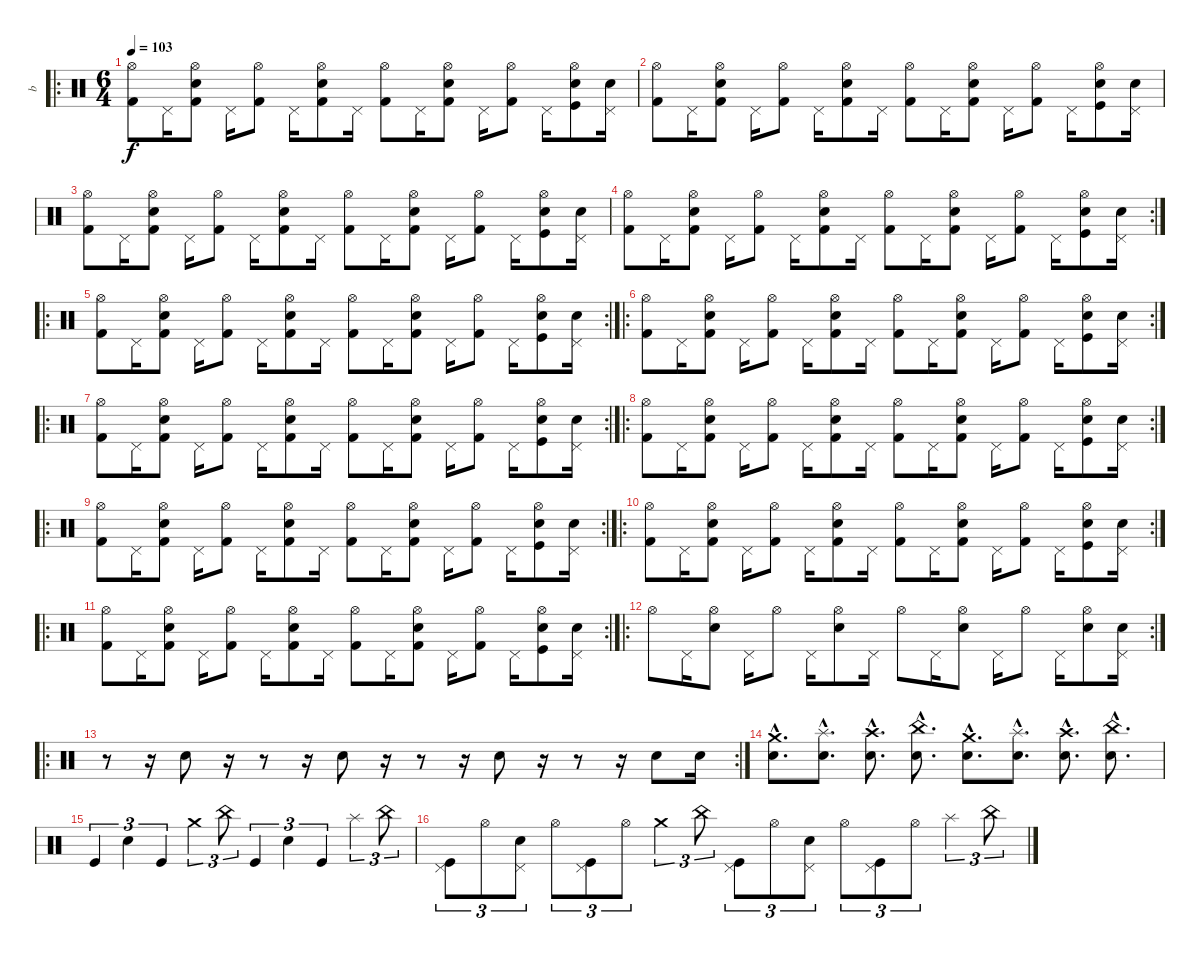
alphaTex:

\track ("b" "b") {instrument percussion}
\staff {score}
\articulation defaults
\ro
\ts (6 4)
\tempo 103
\clef neutral
\ks c
("Hi-Hat (open)" "Kick (hit) 2").8{dy f} "Pedal Hi-Hat (hit)".16 ("Hi-Hat (open)" "Electric Snare (hit)" "Kick (hit) 2").8 "Pedal Hi-Hat (hit)".16 ("Hi-Hat (open)" "Kick (hit) 2").8 "Pedal Hi-Hat (hit)".16 ("Hi-Hat (open)" "Electric Snare (hit)" "Kick (hit) 2").8 "Pedal Hi-Hat (hit)".16 ("Hi-Hat (open)" "Kick (hit) 2").8 "Pedal Hi-Hat (hit)".16 ("Hi-Hat (open)" "Electric Snare (hit)" "Kick (hit) 2").8 "Pedal Hi-Hat (hit)".16 ("Hi-Hat (open)" "Kick (hit) 2").8 "Pedal Hi-Hat (hit)".16 ("Hi-Hat (open)" "Electric Snare (hit)" "Kick (hit)").8 ("Pedal Hi-Hat (hit)" "Electric Snare (hit)").16 |
("Hi-Hat (open)" "Kick (hit) 2").8 "Pedal Hi-Hat (hit)".16 ("Hi-Hat (open)" "Electric Snare (hit)" "Kick (hit) 2").8 "Pedal Hi-Hat (hit)".16 ("Hi-Hat (open)" "Kick (hit) 2").8 "Pedal Hi-Hat (hit)".16 ("Hi-Hat (open)" "Electric Snare (hit)" "Kick (hit) 2").8 "Pedal Hi-Hat (hit)".16 ("Hi-Hat (open)" "Kick (hit) 2").8 "Pedal Hi-Hat (hit)".16 ("Hi-Hat (open)" "Electric Snare (hit)" "Kick (hit) 2").8 "Pedal Hi-Hat (hit)".16 ("Hi-Hat (open)" "Kick (hit) 2").8 "Pedal Hi-Hat (hit)".16 ("Hi-Hat (open)" "Electric Snare (hit)" "Kick (hit)").8 ("Pedal Hi-Hat (hit)" "Electric Snare (hit)").16 |
("Hi-Hat (open)" "Kick (hit) 2").8 "Pedal Hi-Hat (hit)".16 ("Hi-Hat (open)" "Electric Snare (hit)" "Kick (hit) 2").8 "Pedal Hi-Hat (hit)".16 ("Hi-Hat (open)" "Kick (hit) 2").8 "Pedal Hi-Hat (hit)".16 ("Hi-Hat (open)" "Electric Snare (hit)" "Kick (hit) 2").8 "Pedal Hi-Hat (hit)".16 ("Hi-Hat (open)" "Kick (hit) 2").8 "Pedal Hi-Hat (hit)".16 ("Hi-Hat (open)" "Electric Snare (hit)" "Kick (hit) 2").8 "Pedal Hi-Hat (hit)".16 ("Hi-Hat (open)" "Kick (hit) 2").8 "Pedal Hi-Hat (hit)".16 ("Hi-Hat (open)" "Electric Snare (hit)" "Kick (hit)").8 ("Pedal Hi-Hat (hit)" "Electric Snare (hit)").16 |
\rc 2
("Hi-Hat (open)" "Kick (hit) 2").8 "Pedal Hi-Hat (hit)".16 ("Hi-Hat (open)" "Electric Snare (hit)" "Kick (hit) 2").8 "Pedal Hi-Hat (hit)".16 ("Hi-Hat (open)" "Kick (hit) 2").8 "Pedal Hi-Hat (hit)".16 ("Hi-Hat (open)" "Electric Snare (hit)" "Kick (hit) 2").8 "Pedal Hi-Hat (hit)".16 ("Hi-Hat (open)" "Kick (hit) 2").8 "Pedal Hi-Hat (hit)".16 ("Hi-Hat (open)" "Electric Snare (hit)" "Kick (hit) 2").8 "Pedal Hi-Hat (hit)".16 ("Hi-Hat (open)" "Kick (hit) 2").8 "Pedal Hi-Hat (hit)".16 ("Hi-Hat (open)" "Electric Snare (hit)" "Kick (hit)").8 ("Pedal Hi-Hat (hit)" "Electric Snare (hit)").16 |
\ro
\rc 2
("Hi-Hat (open)" "Kick (hit) 2").8 "Pedal Hi-Hat (hit)".16 ("Hi-Hat (open)" "Electric Snare (hit)" "Kick (hit) 2").8 "Pedal Hi-Hat (hit)".16 ("Hi-Hat (open)" "Kick (hit) 2").8 "Pedal Hi-Hat (hit)".16 ("Hi-Hat (open)" "Electric Snare (hit)" "Kick (hit) 2").8 "Pedal Hi-Hat (hit)".16 ("Hi-Hat (open)" "Kick (hit) 2").8 "Pedal Hi-Hat (hit)".16 ("Hi-Hat (open)" "Electric Snare (hit)" "Kick (hit) 2").8 "Pedal Hi-Hat (hit)".16 ("Hi-Hat (open)" "Kick (hit) 2").8 "Pedal Hi-Hat (hit)".16 ("Hi-Hat (open)" "Electric Snare (hit)" "Kick (hit)").8 ("Pedal Hi-Hat (hit)" "Electric Snare (hit)").16 |
\ro
\rc 2
("Hi-Hat (open)" "Kick (hit) 2").8 "Pedal Hi-Hat (hit)".16 ("Hi-Hat (open)" "Electric Snare (hit)" "Kick (hit) 2").8 "Pedal Hi-Hat (hit)".16 ("Hi-Hat (open)" "Kick (hit) 2").8 "Pedal Hi-Hat (hit)".16 ("Hi-Hat (open)" "Electric Snare (hit)" "Kick (hit) 2").8 "Pedal Hi-Hat (hit)".16 ("Hi-Hat (open)" "Kick (hit) 2").8 "Pedal Hi-Hat (hit)".16 ("Hi-Hat (open)" "Electric Snare (hit)" "Kick (hit) 2").8 "Pedal Hi-Hat (hit)".16 ("Hi-Hat (open)" "Kick (hit) 2").8 "Pedal Hi-Hat (hit)".16 ("Hi-Hat (open)" "Electric Snare (hit)" "Kick (hit)").8 ("Pedal Hi-Hat (hit)" "Electric Snare (hit)").16 |
\ro
\rc 2
("Hi-Hat (open)" "Kick (hit) 2").8 "Pedal Hi-Hat (hit)".16 ("Hi-Hat (open)" "Electric Snare (hit)" "Kick (hit) 2").8 "Pedal Hi-Hat (hit)".16 ("Hi-Hat (open)" "Kick (hit) 2").8 "Pedal Hi-Hat (hit)".16 ("Hi-Hat (open)" "Electric Snare (hit)" "Kick (hit) 2").8 "Pedal Hi-Hat (hit)".16 ("Hi-Hat (open)" "Kick (hit) 2").8 "Pedal Hi-Hat (hit)".16 ("Hi-Hat (open)" "Electric Snare (hit)" "Kick (hit) 2").8 "Pedal Hi-Hat (hit)".16 ("Hi-Hat (open)" "Kick (hit) 2").8 "Pedal Hi-Hat (hit)".16 ("Hi-Hat (open)" "Electric Snare (hit)" "Kick (hit)").8 ("Pedal Hi-Hat (hit)" "Electric Snare (hit)").16 |
\ro
\rc 2
("Hi-Hat (open)" "Kick (hit) 2").8 "Pedal Hi-Hat (hit)".16 ("Hi-Hat (open)" "Electric Snare (hit)" "Kick (hit) 2").8 "Pedal Hi-Hat (hit)".16 ("Hi-Hat (open)" "Kick (hit) 2").8 "Pedal Hi-Hat (hit)".16 ("Hi-Hat (open)" "Electric Snare (hit)" "Kick (hit) 2").8 "Pedal Hi-Hat (hit)".16 ("Hi-Hat (open)" "Kick (hit) 2").8 "Pedal Hi-Hat (hit)".16 ("Hi-Hat (open)" "Electric Snare (hit)" "Kick (hit) 2").8 "Pedal Hi-Hat (hit)".16 ("Hi-Hat (open)" "Kick (hit) 2").8 "Pedal Hi-Hat (hit)".16 ("Hi-Hat (open)" "Electric Snare (hit)" "Kick (hit)").8 ("Pedal Hi-Hat (hit)" "Electric Snare (hit)").16 |
\ro
\rc 2
("Hi-Hat (open)" "Kick (hit) 2").8 "Pedal Hi-Hat (hit)".16 ("Hi-Hat (open)" "Electric Snare (hit)" "Kick (hit) 2").8 "Pedal Hi-Hat (hit)".16 ("Hi-Hat (open)" "Kick (hit) 2").8 "Pedal Hi-Hat (hit)".16 ("Hi-Hat (open)" "Electric Snare (hit)" "Kick (hit) 2").8 "Pedal Hi-Hat (hit)".16 ("Hi-Hat (open)" "Kick (hit) 2").8 "Pedal Hi-Hat (hit)".16 ("Hi-Hat (open)" "Electric Snare (hit)" "Kick (hit) 2").8 "Pedal Hi-Hat (hit)".16 ("Hi-Hat (open)" "Kick (hit) 2").8 "Pedal Hi-Hat (hit)".16 ("Hi-Hat (open)" "Electric Snare (hit)" "Kick (hit)").8 ("Pedal Hi-Hat (hit)" "Electric Snare (hit)").16 |
\ro
\rc 2
("Hi-Hat (open)" "Kick (hit) 2").8 "Pedal Hi-Hat (hit)".16 ("Hi-Hat (open)" "Electric Snare (hit)" "Kick (hit) 2").8 "Pedal Hi-Hat (hit)".16 ("Hi-Hat (open)" "Kick (hit) 2").8 "Pedal Hi-Hat (hit)".16 ("Hi-Hat (open)" "Electric Snare (hit)" "Kick (hit) 2").8 "Pedal Hi-Hat (hit)".16 ("Hi-Hat (open)" "Kick (hit) 2").8 "Pedal Hi-Hat (hit)".16 ("Hi-Hat (open)" "Electric Snare (hit)" "Kick (hit) 2").8 "Pedal Hi-Hat (hit)".16 ("Hi-Hat (open)" "Kick (hit) 2").8 "Pedal Hi-Hat (hit)".16 ("Hi-Hat (open)" "Electric Snare (hit)" "Kick (hit)").8 ("Pedal Hi-Hat (hit)" "Electric Snare (hit)").16 |
\ro
\rc 2
("Hi-Hat (open)" "Kick (hit) 2").8 "Pedal Hi-Hat (hit)".16 ("Hi-Hat (open)" "Electric Snare (hit)" "Kick (hit) 2").8 "Pedal Hi-Hat (hit)".16 ("Hi-Hat (open)" "Kick (hit) 2").8 "Pedal Hi-Hat (hit)".16 ("Hi-Hat (open)" "Electric Snare (hit)" "Kick (hit) 2").8 "Pedal Hi-Hat (hit)".16 ("Hi-Hat (open)" "Kick (hit) 2").8 "Pedal Hi-Hat (hit)".16 ("Hi-Hat (open)" "Electric Snare (hit)" "Kick (hit) 2").8 "Pedal Hi-Hat (hit)".16 ("Hi-Hat (open)" "Kick (hit) 2").8 "Pedal Hi-Hat (hit)".16 ("Hi-Hat (open)" "Electric Snare (hit)" "Kick (hit)").8 ("Pedal Hi-Hat (hit)" "Electric Snare (hit)").16 |
\ro
\rc 2 "Hi-Hat (open)".8 "Pedal Hi-Hat (hit)".16
("Hi-Hat (open)" "Electric Snare (hit)").8 "Pedal Hi-Hat (hit)".16 "Hi-Hat (open)".8 "Pedal Hi-Hat (hit)".16 ("Hi-Hat (open)" "Electric Snare (hit)").8 "Pedal Hi-Hat (hit)".16 "Hi-Hat (open)".8 "Pedal Hi-Hat (hit)".16 ("Hi-Hat (open)" "Electric Snare (hit)").8 "Pedal Hi-Hat (hit)".16 "Hi-Hat (open)".8 "Pedal Hi-Hat (hit)".16 ("Hi-Hat (open)" "Electric Snare (hit)").8 ("Pedal Hi-Hat (hit)" "Electric Snare (hit)").16 |
\ro
\rc 2
r.8 r.16 "Electric Snare (hit)".8 r.16 r.8 r.16 "Electric Snare (hit)".8 r.16 r.8 r.16 "Electric Snare (hit)".8 r.16 r.8 r.16 "Electric Snare (hit)".8 "Electric Snare (hit)".16 |
("Crash medium (hit)"{hac} "Electric Snare (hit)"{hac}).8{d} ("Splash (hit)"{hac} "Snare (hit) 2"{hac}).8{d} ("Crash high (hit)"{hac} "Electric Snare (hit)"{hac}).8{d} ("China (hit)"{hac} "Snare (hit) 2"{hac}).8{d} ("Crash medium (hit)"{hac} "Electric Snare (hit)"{hac}).8{d} ("Splash (hit)"{hac} "Snare (hit) 2"{hac}).8{d} ("Crash high (hit)"{hac} "Electric Snare (hit)"{hac}).8{d} ("China (hit)"{hac} "Snare (hit) 2"{hac}).8{d} |
"Kick (hit)".4{tu (3 2)} "Electric Snare (hit)".4{tu (3 2)} "Kick (hit)".4{tu (3 2)} "Crash medium (hit)".4{tu (3 2)} "China (hit)".8{tu (3 2)} "Kick (hit)".4{tu (3 2)} "Electric Snare (hit)".4{tu (3 2)} "Kick (hit)".4{tu (3 2)} "Splash (hit)".4{tu (3 2)} "China (hit)".8{tu (3 2)} |
("Pedal Hi-Hat (hit)" "Kick (hit)").8{tu (3 2)} "Hi-Hat (open)".8{tu (3 2)} ("Pedal Hi-Hat (hit)" "Electric Snare (hit)").8{tu (3 2)} "Hi-Hat (open)".8{tu (3 2)} ("Pedal Hi-Hat (hit)" "Kick (hit)").8{tu (3 2)} "Hi-Hat (open)".8{tu (3 2)} "Crash medium (hit)".4{tu (3 2)} "China (hit)".8{tu (3 2)} ("Pedal Hi-Hat (hit)" "Kick (hit)").8{tu (3 2)} "Hi-Hat (open)".8{tu (3 2)} ("Pedal Hi-Hat (hit)" "Electric Snare (hit)").8{tu (3 2)} "Hi-Hat (open)".8{tu (3 2)} ("Pedal Hi-Hat (hit)" "Kick (hit)").8{tu (3 2)} "Hi-Hat (open)".8{tu (3 2)} "Splash (hit)".4{tu (3 2)} "China (hit)".8{tu (3 2)}
